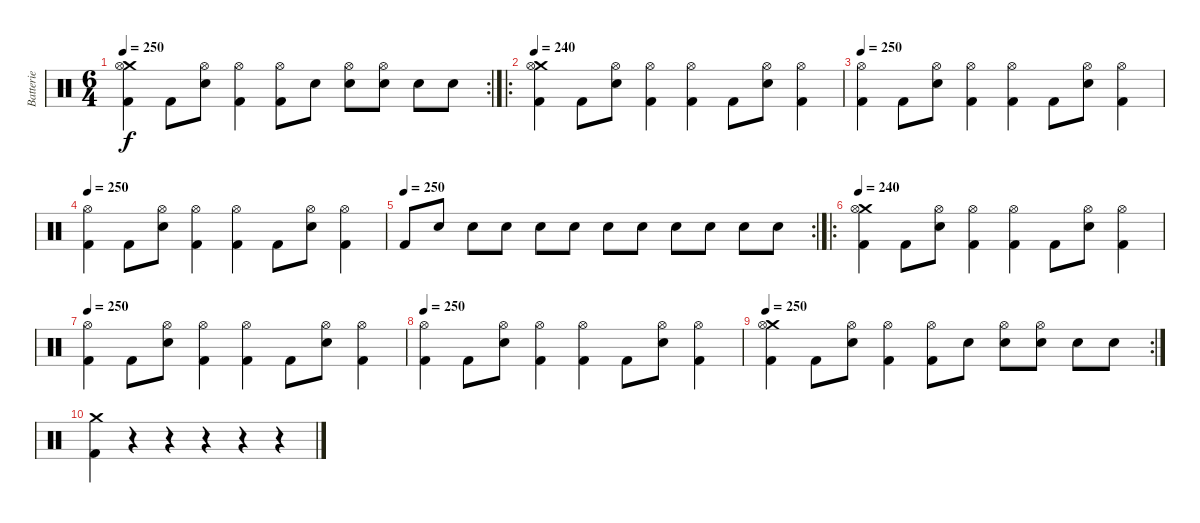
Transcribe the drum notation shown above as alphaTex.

\track ("Batterie" "Batterie") {instrument percussion}
\staff {score}
\articulation defaults
\rc 2
\ts (6 4)
\tempo 250
\clef neutral
\ks c
("Crash medium (hit)" "Hi-Hat (open)" "Kick (hit) 2").4{dy f} "Kick (hit) 2".8 ("Hi-Hat (open)" "Electric Snare (hit)").8 ("Hi-Hat (open)" "Kick (hit) 2").4 ("Hi-Hat (open)" "Kick (hit) 2").8 "Electric Snare (hit)".8 ("Hi-Hat (open)" "Electric Snare (hit)").8 ("Hi-Hat (open)" "Electric Snare (hit)").8 "Electric Snare (hit)".8 "Electric Snare (hit)".8 |
\ro
\tempo 240
("Crash medium (hit)" "Hi-Hat (open)" "Kick (hit) 2").4 "Kick (hit) 2".8 ("Hi-Hat (open)" "Electric Snare (hit)").8 ("Hi-Hat (open)" "Kick (hit) 2").4 ("Hi-Hat (open)" "Kick (hit) 2").4 "Kick (hit) 2".8 ("Hi-Hat (open)" "Electric Snare (hit)").8 ("Hi-Hat (open)" "Kick (hit) 2").4 |
\tempo 250
("Hi-Hat (open)" "Kick (hit) 2").4 "Kick (hit) 2".8 ("Hi-Hat (open)" "Electric Snare (hit)").8 ("Hi-Hat (open)" "Kick (hit) 2").4 ("Hi-Hat (open)" "Kick (hit) 2").4 "Kick (hit) 2".8 ("Hi-Hat (open)" "Electric Snare (hit)").8 ("Hi-Hat (open)" "Kick (hit) 2").4 |
\tempo 250
("Hi-Hat (open)" "Kick (hit) 2").4 "Kick (hit) 2".8 ("Hi-Hat (open)" "Electric Snare (hit)").8 ("Hi-Hat (open)" "Kick (hit) 2").4 ("Hi-Hat (open)" "Kick (hit) 2").4 "Kick (hit) 2".8 ("Hi-Hat (open)" "Electric Snare (hit)").8 ("Hi-Hat (open)" "Kick (hit) 2").4 |
\rc 2
\tempo (250)
"Kick (hit) 2".8 "Electric Snare (hit)".8 "Electric Snare (hit)".8 "Electric Snare (hit)".8 "Electric Snare (hit)".8 "Electric Snare (hit)".8 "Electric Snare (hit)".8 "Electric Snare (hit)".8 "Electric Snare (hit)".8 "Electric Snare (hit)".8 "Electric Snare (hit)".8 "Electric Snare (hit)".8 |
\ro
\tempo 240
("Crash medium (hit)" "Hi-Hat (open)" "Kick (hit) 2").4 "Kick (hit) 2".8 ("Hi-Hat (open)" "Electric Snare (hit)").8 ("Hi-Hat (open)" "Kick (hit) 2").4 ("Hi-Hat (open)" "Kick (hit) 2").4 "Kick (hit) 2".8 ("Hi-Hat (open)" "Electric Snare (hit)").8 ("Hi-Hat (open)" "Kick (hit) 2").4 |
\tempo 250
("Hi-Hat (open)" "Kick (hit) 2").4 "Kick (hit) 2".8 ("Hi-Hat (open)" "Electric Snare (hit)").8 ("Hi-Hat (open)" "Kick (hit) 2").4 ("Hi-Hat (open)" "Kick (hit) 2").4 "Kick (hit) 2".8 ("Hi-Hat (open)" "Electric Snare (hit)").8 ("Hi-Hat (open)" "Kick (hit) 2").4 |
\tempo 250
("Hi-Hat (open)" "Kick (hit) 2").4 "Kick (hit) 2".8 ("Hi-Hat (open)" "Electric Snare (hit)").8 ("Hi-Hat (open)" "Kick (hit) 2").4 ("Hi-Hat (open)" "Kick (hit) 2").4 "Kick (hit) 2".8 ("Hi-Hat (open)" "Electric Snare (hit)").8 ("Hi-Hat (open)" "Kick (hit) 2").4 |
\rc 2
\tempo 250
("Crash medium (hit)" "Hi-Hat (open)" "Kick (hit) 2").4 "Kick (hit) 2".8 ("Hi-Hat (open)" "Electric Snare (hit)").8 ("Hi-Hat (open)" "Kick (hit) 2").4 ("Hi-Hat (open)" "Kick (hit) 2").8 "Electric Snare (hit)".8 ("Hi-Hat (open)" "Electric Snare (hit)").8 ("Hi-Hat (open)" "Electric Snare (hit)").8 "Electric Snare (hit)".8 "Electric Snare (hit)".8 |
("Kick (hit) 2" "Crash medium (hit)").4 r.4 r.4 r.4 r.4 r.4
